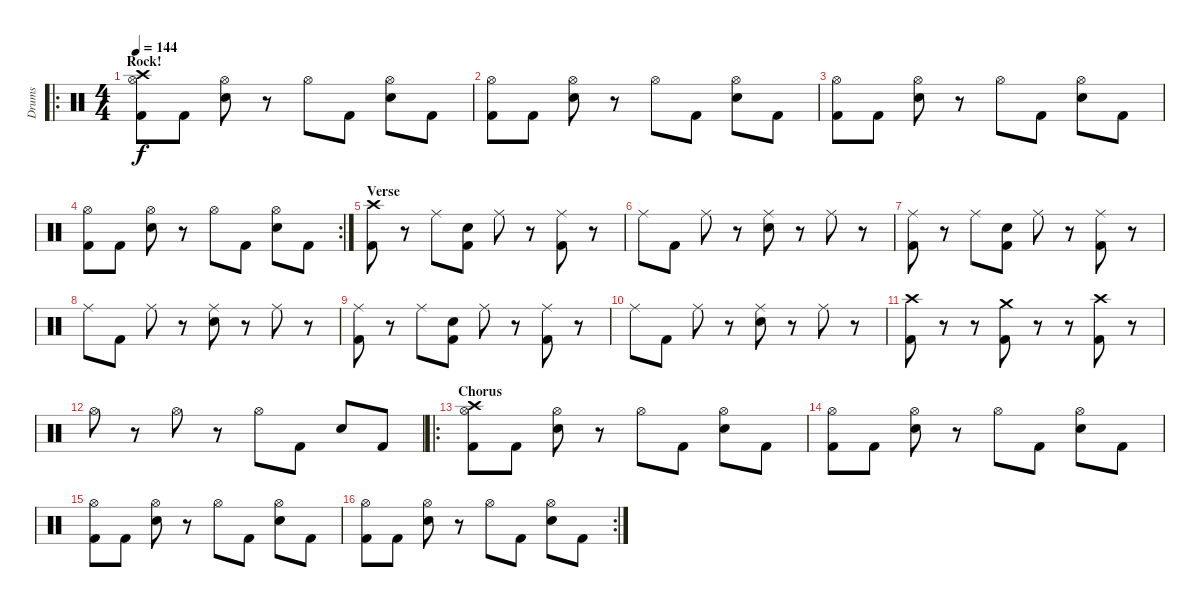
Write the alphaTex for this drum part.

\track ("Drums" "Drums") {instrument percussion}
\staff {score}
\articulation defaults
\ro
\ts (4 4)
\section ("" "Rock!")
\tempo 144
\clef neutral
\ks c
("Crash high (hit)" "Hi-Hat (open)" "Kick (hit) 2").8{dy f} "Kick (hit) 2".8 ("Hi-Hat (open)" "Electric Snare (hit)").8 r.8 "Hi-Hat (open)".8 "Kick (hit) 2".8 ("Hi-Hat (open)" "Electric Snare (hit)").8 "Kick (hit) 2".8 |
("Hi-Hat (open)" "Kick (hit) 2").8 "Kick (hit) 2".8 ("Hi-Hat (open)" "Electric Snare (hit)").8 r.8 "Hi-Hat (open)".8 "Kick (hit) 2".8 ("Hi-Hat (open)" "Electric Snare (hit)").8 "Kick (hit) 2".8 |
("Hi-Hat (open)" "Kick (hit) 2").8 "Kick (hit) 2".8 ("Hi-Hat (open)" "Electric Snare (hit)").8 r.8 "Hi-Hat (open)".8 "Kick (hit) 2".8 ("Hi-Hat (open)" "Electric Snare (hit)").8 "Kick (hit) 2".8 |
\rc 2
("Hi-Hat (open)" "Kick (hit) 2").8 "Kick (hit) 2".8 ("Hi-Hat (open)" "Electric Snare (hit)").8 r.8 "Hi-Hat (open)".8 "Kick (hit) 2".8 ("Hi-Hat (open)" "Electric Snare (hit)").8 "Kick (hit) 2".8 |
\section ("" "Verse")
("Crash high (hit)" "Kick (hit) 2").8 r.8 "Ride (middle)".8 ("Electric Snare (hit)" "Kick (hit) 2").8 "Ride (middle)".8 r.8 ("Ride (middle)" "Kick (hit) 2").8 r.8 |
"Ride (middle)".8 "Kick (hit) 2".8 "Ride (middle)".8 r.8 ("Ride (middle)" "Electric Snare (hit)").8 r.8 "Ride (middle)".8 r.8 |
("Ride (middle)" "Kick (hit) 2").8 r.8 "Ride (middle)".8 ("Electric Snare (hit)" "Kick (hit) 2").8 "Ride (middle)".8 r.8 ("Ride (middle)" "Kick (hit) 2").8 r.8 |
"Ride (middle)".8 "Kick (hit) 2".8 "Ride (middle)".8 r.8 ("Ride (middle)" "Electric Snare (hit)").8 r.8 "Ride (middle)".8 r.8 |
("Ride (middle)" "Kick (hit) 2").8 r.8 "Ride (middle)".8 ("Electric Snare (hit)" "Kick (hit) 2").8 "Ride (middle)".8 r.8 ("Ride (middle)" "Kick (hit) 2").8 r.8 |
"Ride (middle)".8 "Kick (hit) 2".8 "Ride (middle)".8 r.8 ("Ride (middle)" "Electric Snare (hit)").8 r.8 "Ride (middle)".8 r.8 |
("Crash high (hit)" "Kick (hit) 2").8 r.8 r.8 ("Crash medium (hit)" "Kick (hit) 2").8 r.8 r.8 ("Crash high (hit)" "Kick (hit) 2").8 r.8 |
"Hi-Hat (open)".8 r.8 "Hi-Hat (open)".8 r.8 "Hi-Hat (open)".8 "Kick (hit) 2".8 "Electric Snare (hit)".8 "Kick (hit) 2".8 |
\ro
\section ("" "Chorus")
("Crash high (hit)" "Hi-Hat (open)" "Kick (hit) 2").8 "Kick (hit) 2".8 ("Hi-Hat (open)" "Electric Snare (hit)").8 r.8 "Hi-Hat (open)".8 "Kick (hit) 2".8 ("Hi-Hat (open)" "Electric Snare (hit)").8 "Kick (hit) 2".8 |
("Hi-Hat (open)" "Kick (hit) 2").8 "Kick (hit) 2".8 ("Hi-Hat (open)" "Electric Snare (hit)").8 r.8 "Hi-Hat (open)".8 "Kick (hit) 2".8 ("Hi-Hat (open)" "Electric Snare (hit)").8 "Kick (hit) 2".8 |
("Hi-Hat (open)" "Kick (hit) 2").8 "Kick (hit) 2".8 ("Hi-Hat (open)" "Electric Snare (hit)").8 r.8 "Hi-Hat (open)".8 "Kick (hit) 2".8 ("Hi-Hat (open)" "Electric Snare (hit)").8 "Kick (hit) 2".8 |
\rc 2
("Hi-Hat (open)" "Kick (hit) 2").8 "Kick (hit) 2".8 ("Hi-Hat (open)" "Electric Snare (hit)").8 r.8 "Hi-Hat (open)".8 "Kick (hit) 2".8 ("Hi-Hat (open)" "Electric Snare (hit)").8 "Kick (hit) 2".8
